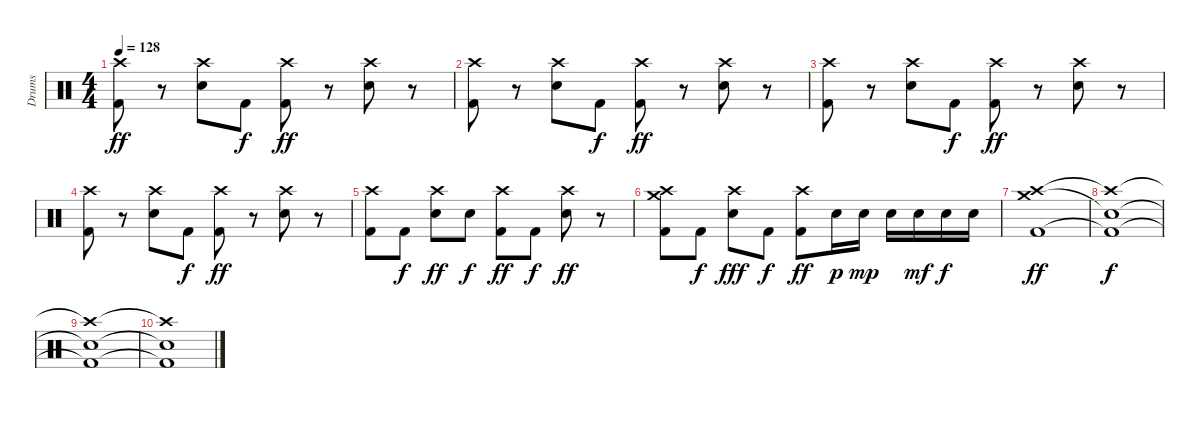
\track ("Drums" "Drums") {instrument percussion}
\staff {score}
\articulation defaults
\ts (4 4)
\tempo 128
\clef neutral
\ks c
("Crash high (hit)" "Kick (hit) 2").8{dy ff} r.8 ("Crash high (hit)" "Snare (hit) 2").8 "Kick (hit) 2".8{dy f} ("Crash high (hit)" "Kick (hit) 2").8{dy ff} r.8 ("Crash high (hit)" "Snare (hit) 2").8 r.8 |
("Crash high (hit)" "Kick (hit) 2").8 r.8 ("Crash high (hit)" "Snare (hit) 2").8 "Kick (hit) 2".8{dy f} ("Crash high (hit)" "Kick (hit) 2").8{dy ff} r.8 ("Crash high (hit)" "Snare (hit) 2").8 r.8 |
("Crash high (hit)" "Kick (hit) 2").8 r.8 ("Crash high (hit)" "Snare (hit) 2").8 "Kick (hit) 2".8{dy f} ("Crash high (hit)" "Kick (hit) 2").8{dy ff} r.8 ("Crash high (hit)" "Snare (hit) 2").8 r.8 |
("Crash high (hit)" "Kick (hit) 2").8 r.8 ("Crash high (hit)" "Snare (hit) 2").8 "Kick (hit) 2".8{dy f} ("Crash high (hit)" "Kick (hit) 2").8{dy ff} r.8 ("Crash high (hit)" "Snare (hit) 2").8 r.8 |
("Crash high (hit)" "Kick (hit) 2").8 "Kick (hit) 2".8{dy f} ("Crash high (hit)" "Snare (hit) 2").8{dy ff} "Snare (hit) 2".8{dy f} ("Crash high (hit)" "Kick (hit) 2").8{dy ff} "Kick (hit) 2".8{dy f} ("Crash high (hit)" "Snare (hit) 2").8{dy ff} r.8 |
("Crash high (hit)" "Kick (hit) 2" "Crash medium (hit)").8 "Kick (hit) 2".8{dy f} ("Crash high (hit)" "Snare (hit) 2").8{dy fff} "Kick (hit) 2".8{dy f} ("Crash high (hit)" "Kick (hit) 2").8{dy ff} "Snare (hit) 2".16{dy p} "Snare (hit) 2".16{dy mp} "Snare (hit) 2".16 "Snare (hit) 2".16{dy mf} "Snare (hit) 2".16{dy f} "Snare (hit) 2".16 |
("Crash high (hit)" "Kick (hit) 2" "Crash medium (hit)").1{dy ff volume 0} |
("Crash high (hit)"{t} "Kick (hit) 2"{t} "Snare (hit)"{t}).1{dy f} |
("Crash high (hit)"{t} "Kick (hit) 2"{t} "Snare (hit)"{t}).1 |
("Crash high (hit)"{t} "Kick (hit) 2"{t} "Snare (hit)"{t}).1
